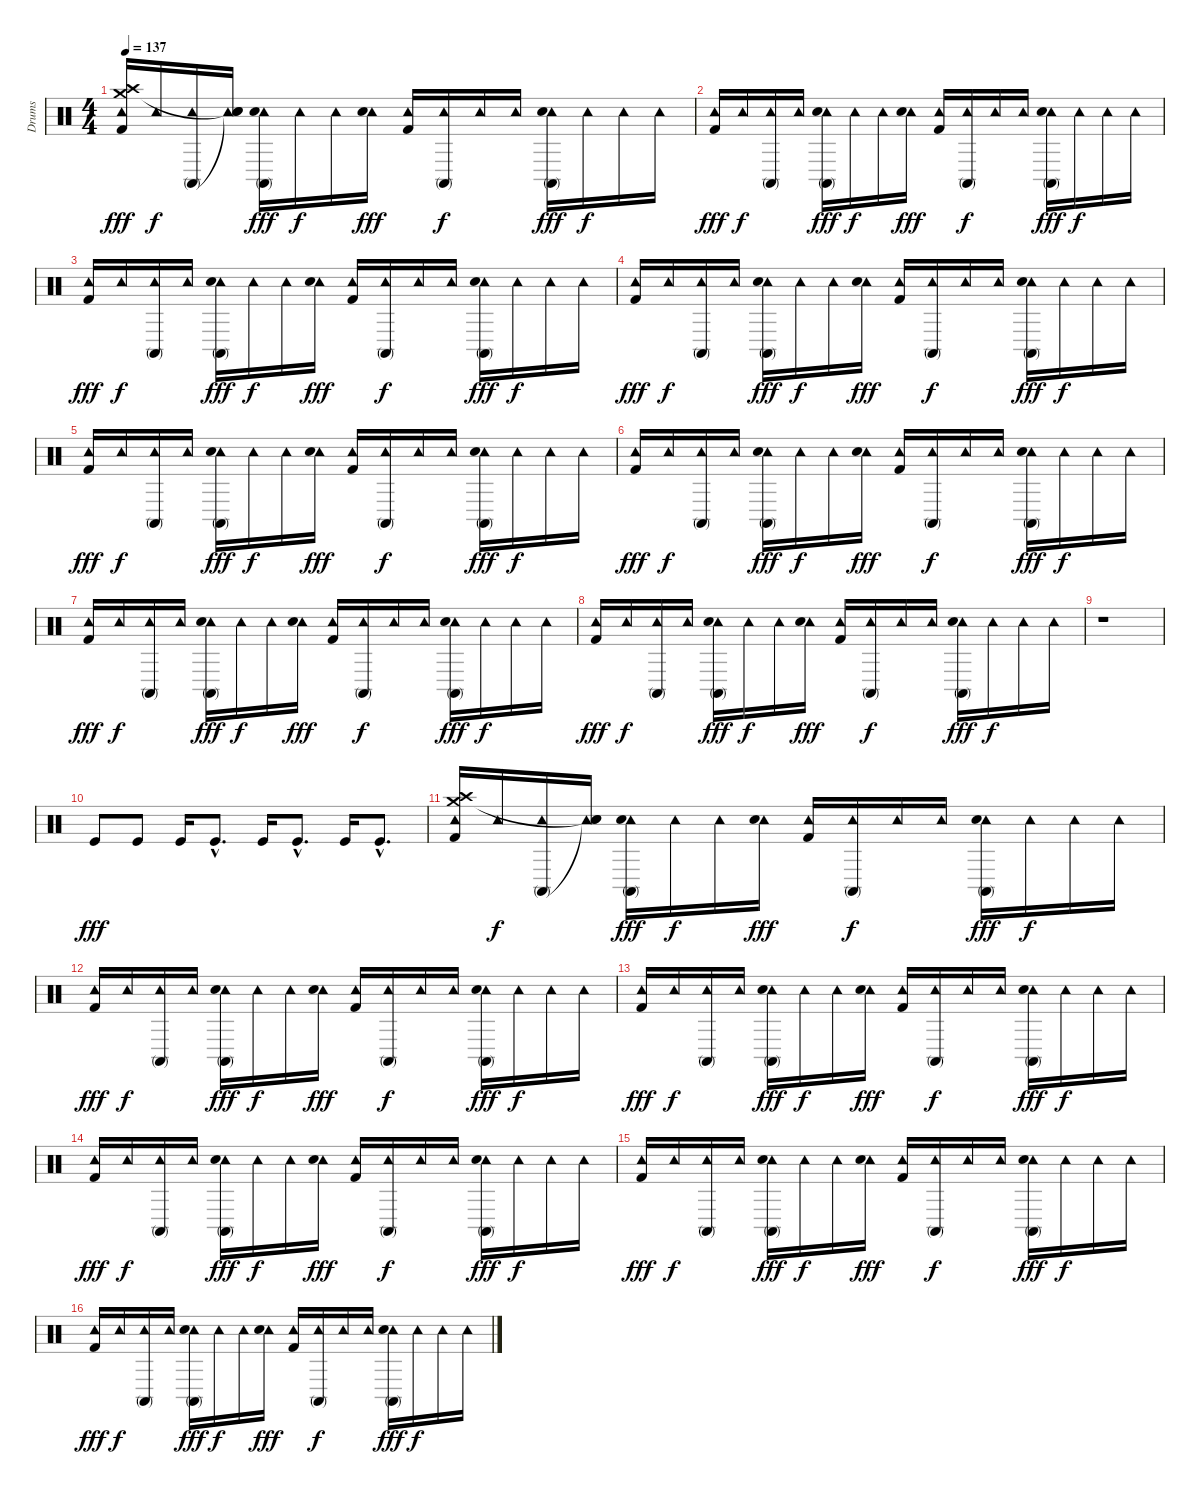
\track ("Drums" "Drums") {instrument percussion}
\staff {score}
\articulation defaults
\ts (4 4)
\tempo 137
\clef neutral
\ks c
("Tambourine (hit)" "Crash high (hit)" "Crash medium (hit)" "Kick (hit) 2").16{dy fff} "Tambourine (hit)".16{dy f} ("Tambourine (hit)" "Conga high (mute)").16 ("Tambourine (hit)" "Snare (hit)"{t} "Snare (hit)"{t}).16 ("Tambourine (hit)" "Conga high (mute)" "Electric Snare (hit)").16{dy fff} "Tambourine (hit)".16{dy f} "Tambourine (hit)".16 ("Tambourine (hit)" "Electric Snare (hit)").16{dy fff} ("Tambourine (hit)" "Kick (hit) 2").16 ("Tambourine (hit)" "Conga high (mute)").16{dy f} "Tambourine (hit)".16 "Tambourine (hit)".16 ("Tambourine (hit)" "Conga high (mute)" "Electric Snare (hit)").16{dy fff} "Tambourine (hit)".16{dy f} "Tambourine (hit)".16 "Tambourine (hit)".16 |
("Tambourine (hit)" "Kick (hit) 2").16{dy fff} "Tambourine (hit)".16{dy f} ("Tambourine (hit)" "Conga high (mute)").16 "Tambourine (hit)".16 ("Tambourine (hit)" "Conga high (mute)" "Electric Snare (hit)").16{dy fff} "Tambourine (hit)".16{dy f} "Tambourine (hit)".16 ("Tambourine (hit)" "Electric Snare (hit)").16{dy fff} ("Tambourine (hit)" "Kick (hit) 2").16 ("Tambourine (hit)" "Conga high (mute)").16{dy f} "Tambourine (hit)".16 "Tambourine (hit)".16 ("Tambourine (hit)" "Conga high (mute)" "Electric Snare (hit)").16{dy fff} "Tambourine (hit)".16{dy f} "Tambourine (hit)".16 "Tambourine (hit)".16 |
("Tambourine (hit)" "Kick (hit) 2").16{dy fff} "Tambourine (hit)".16{dy f} ("Tambourine (hit)" "Conga high (mute)").16 "Tambourine (hit)".16 ("Tambourine (hit)" "Conga high (mute)" "Electric Snare (hit)").16{dy fff} "Tambourine (hit)".16{dy f} "Tambourine (hit)".16 ("Tambourine (hit)" "Electric Snare (hit)").16{dy fff} ("Tambourine (hit)" "Kick (hit) 2").16 ("Tambourine (hit)" "Conga high (mute)").16{dy f} "Tambourine (hit)".16 "Tambourine (hit)".16 ("Tambourine (hit)" "Conga high (mute)" "Electric Snare (hit)").16{dy fff} "Tambourine (hit)".16{dy f} "Tambourine (hit)".16 "Tambourine (hit)".16 |
("Tambourine (hit)" "Kick (hit) 2").16{dy fff} "Tambourine (hit)".16{dy f} ("Tambourine (hit)" "Conga high (mute)").16 "Tambourine (hit)".16 ("Tambourine (hit)" "Conga high (mute)" "Electric Snare (hit)").16{dy fff} "Tambourine (hit)".16{dy f} "Tambourine (hit)".16 ("Tambourine (hit)" "Electric Snare (hit)").16{dy fff} ("Tambourine (hit)" "Kick (hit) 2").16 ("Tambourine (hit)" "Conga high (mute)").16{dy f} "Tambourine (hit)".16 "Tambourine (hit)".16 ("Tambourine (hit)" "Conga high (mute)" "Electric Snare (hit)").16{dy fff} "Tambourine (hit)".16{dy f} "Tambourine (hit)".16 "Tambourine (hit)".16 |
("Tambourine (hit)" "Kick (hit) 2").16{dy fff} "Tambourine (hit)".16{dy f} ("Tambourine (hit)" "Conga high (mute)").16 "Tambourine (hit)".16 ("Tambourine (hit)" "Conga high (mute)" "Electric Snare (hit)").16{dy fff} "Tambourine (hit)".16{dy f} "Tambourine (hit)".16 ("Tambourine (hit)" "Electric Snare (hit)").16{dy fff} ("Tambourine (hit)" "Kick (hit) 2").16 ("Tambourine (hit)" "Conga high (mute)").16{dy f} "Tambourine (hit)".16 "Tambourine (hit)".16 ("Tambourine (hit)" "Conga high (mute)" "Electric Snare (hit)").16{dy fff} "Tambourine (hit)".16{dy f} "Tambourine (hit)".16 "Tambourine (hit)".16 |
("Tambourine (hit)" "Kick (hit) 2").16{dy fff} "Tambourine (hit)".16{dy f} ("Tambourine (hit)" "Conga high (mute)").16 "Tambourine (hit)".16 ("Tambourine (hit)" "Conga high (mute)" "Electric Snare (hit)").16{dy fff} "Tambourine (hit)".16{dy f} "Tambourine (hit)".16 ("Tambourine (hit)" "Electric Snare (hit)").16{dy fff} ("Tambourine (hit)" "Kick (hit) 2").16 ("Tambourine (hit)" "Conga high (mute)").16{dy f} "Tambourine (hit)".16 "Tambourine (hit)".16 ("Tambourine (hit)" "Conga high (mute)" "Electric Snare (hit)").16{dy fff} "Tambourine (hit)".16{dy f} "Tambourine (hit)".16 "Tambourine (hit)".16 |
("Tambourine (hit)" "Kick (hit) 2").16{dy fff} "Tambourine (hit)".16{dy f} ("Tambourine (hit)" "Conga high (mute)").16 "Tambourine (hit)".16 ("Tambourine (hit)" "Conga high (mute)" "Electric Snare (hit)").16{dy fff} "Tambourine (hit)".16{dy f} "Tambourine (hit)".16 ("Tambourine (hit)" "Electric Snare (hit)").16{dy fff} ("Tambourine (hit)" "Kick (hit) 2").16 ("Tambourine (hit)" "Conga high (mute)").16{dy f} "Tambourine (hit)".16 "Tambourine (hit)".16 ("Tambourine (hit)" "Conga high (mute)" "Electric Snare (hit)").16{dy fff} "Tambourine (hit)".16{dy f} "Tambourine (hit)".16 "Tambourine (hit)".16 |
("Tambourine (hit)" "Kick (hit) 2").16{dy fff} "Tambourine (hit)".16{dy f} ("Tambourine (hit)" "Conga high (mute)").16 "Tambourine (hit)".16 ("Tambourine (hit)" "Conga high (mute)" "Electric Snare (hit)").16{dy fff} "Tambourine (hit)".16{dy f} "Tambourine (hit)".16 ("Tambourine (hit)" "Electric Snare (hit)").16{dy fff} ("Tambourine (hit)" "Kick (hit) 2").16 ("Tambourine (hit)" "Conga high (mute)").16{dy f} "Tambourine (hit)".16 "Tambourine (hit)".16 ("Tambourine (hit)" "Conga high (mute)" "Electric Snare (hit)").16{dy fff} "Tambourine (hit)".16{dy f} "Tambourine (hit)".16 "Tambourine (hit)".16 |
r.1 |
"Kick (hit)".8{dy fff} "Kick (hit)".8 "Kick (hit)".16 "Kick (hit)"{hac}.8{d} "Kick (hit)".16 "Kick (hit)"{hac}.8{d} "Kick (hit)".16 "Kick (hit)"{hac}.8{d} |
("Tambourine (hit)" "Crash high (hit)" "Crash medium (hit)" "Kick (hit) 2").16 "Tambourine (hit)".16{dy f} ("Tambourine (hit)" "Conga high (mute)").16 ("Tambourine (hit)" "Snare (hit)"{t} "Snare (hit)"{t}).16 ("Tambourine (hit)" "Conga high (mute)" "Electric Snare (hit)").16{dy fff} "Tambourine (hit)".16{dy f} "Tambourine (hit)".16 ("Tambourine (hit)" "Electric Snare (hit)").16{dy fff} ("Tambourine (hit)" "Kick (hit) 2").16 ("Tambourine (hit)" "Conga high (mute)").16{dy f} "Tambourine (hit)".16 "Tambourine (hit)".16 ("Tambourine (hit)" "Conga high (mute)" "Electric Snare (hit)").16{dy fff} "Tambourine (hit)".16{dy f} "Tambourine (hit)".16 "Tambourine (hit)".16 |
("Tambourine (hit)" "Kick (hit) 2").16{dy fff} "Tambourine (hit)".16{dy f} ("Tambourine (hit)" "Conga high (mute)").16 "Tambourine (hit)".16 ("Tambourine (hit)" "Conga high (mute)" "Electric Snare (hit)").16{dy fff} "Tambourine (hit)".16{dy f} "Tambourine (hit)".16 ("Tambourine (hit)" "Electric Snare (hit)").16{dy fff} ("Tambourine (hit)" "Kick (hit) 2").16 ("Tambourine (hit)" "Conga high (mute)").16{dy f} "Tambourine (hit)".16 "Tambourine (hit)".16 ("Tambourine (hit)" "Conga high (mute)" "Electric Snare (hit)").16{dy fff} "Tambourine (hit)".16{dy f} "Tambourine (hit)".16 "Tambourine (hit)".16 |
("Tambourine (hit)" "Kick (hit) 2").16{dy fff} "Tambourine (hit)".16{dy f} ("Tambourine (hit)" "Conga high (mute)").16 "Tambourine (hit)".16 ("Tambourine (hit)" "Conga high (mute)" "Electric Snare (hit)").16{dy fff} "Tambourine (hit)".16{dy f} "Tambourine (hit)".16 ("Tambourine (hit)" "Electric Snare (hit)").16{dy fff} ("Tambourine (hit)" "Kick (hit) 2").16 ("Tambourine (hit)" "Conga high (mute)").16{dy f} "Tambourine (hit)".16 "Tambourine (hit)".16 ("Tambourine (hit)" "Conga high (mute)" "Electric Snare (hit)").16{dy fff} "Tambourine (hit)".16{dy f} "Tambourine (hit)".16 "Tambourine (hit)".16 |
("Tambourine (hit)" "Kick (hit) 2").16{dy fff} "Tambourine (hit)".16{dy f} ("Tambourine (hit)" "Conga high (mute)").16 "Tambourine (hit)".16 ("Tambourine (hit)" "Conga high (mute)" "Electric Snare (hit)").16{dy fff} "Tambourine (hit)".16{dy f} "Tambourine (hit)".16 ("Tambourine (hit)" "Electric Snare (hit)").16{dy fff} ("Tambourine (hit)" "Kick (hit) 2").16 ("Tambourine (hit)" "Conga high (mute)").16{dy f} "Tambourine (hit)".16 "Tambourine (hit)".16 ("Tambourine (hit)" "Conga high (mute)" "Electric Snare (hit)").16{dy fff} "Tambourine (hit)".16{dy f} "Tambourine (hit)".16 "Tambourine (hit)".16 |
("Tambourine (hit)" "Kick (hit) 2").16{dy fff} "Tambourine (hit)".16{dy f} ("Tambourine (hit)" "Conga high (mute)").16 "Tambourine (hit)".16 ("Tambourine (hit)" "Conga high (mute)" "Electric Snare (hit)").16{dy fff} "Tambourine (hit)".16{dy f} "Tambourine (hit)".16 ("Tambourine (hit)" "Electric Snare (hit)").16{dy fff} ("Tambourine (hit)" "Kick (hit) 2").16 ("Tambourine (hit)" "Conga high (mute)").16{dy f} "Tambourine (hit)".16 "Tambourine (hit)".16 ("Tambourine (hit)" "Conga high (mute)" "Electric Snare (hit)").16{dy fff} "Tambourine (hit)".16{dy f} "Tambourine (hit)".16 "Tambourine (hit)".16 |
("Tambourine (hit)" "Kick (hit) 2").16{dy fff} "Tambourine (hit)".16{dy f} ("Tambourine (hit)" "Conga high (mute)").16 "Tambourine (hit)".16 ("Tambourine (hit)" "Conga high (mute)" "Electric Snare (hit)").16{dy fff} "Tambourine (hit)".16{dy f} "Tambourine (hit)".16 ("Tambourine (hit)" "Electric Snare (hit)").16{dy fff} ("Tambourine (hit)" "Kick (hit) 2").16 ("Tambourine (hit)" "Conga high (mute)").16{dy f} "Tambourine (hit)".16 "Tambourine (hit)".16 ("Tambourine (hit)" "Conga high (mute)" "Electric Snare (hit)").16{dy fff} "Tambourine (hit)".16{dy f} "Tambourine (hit)".16 "Tambourine (hit)".16
